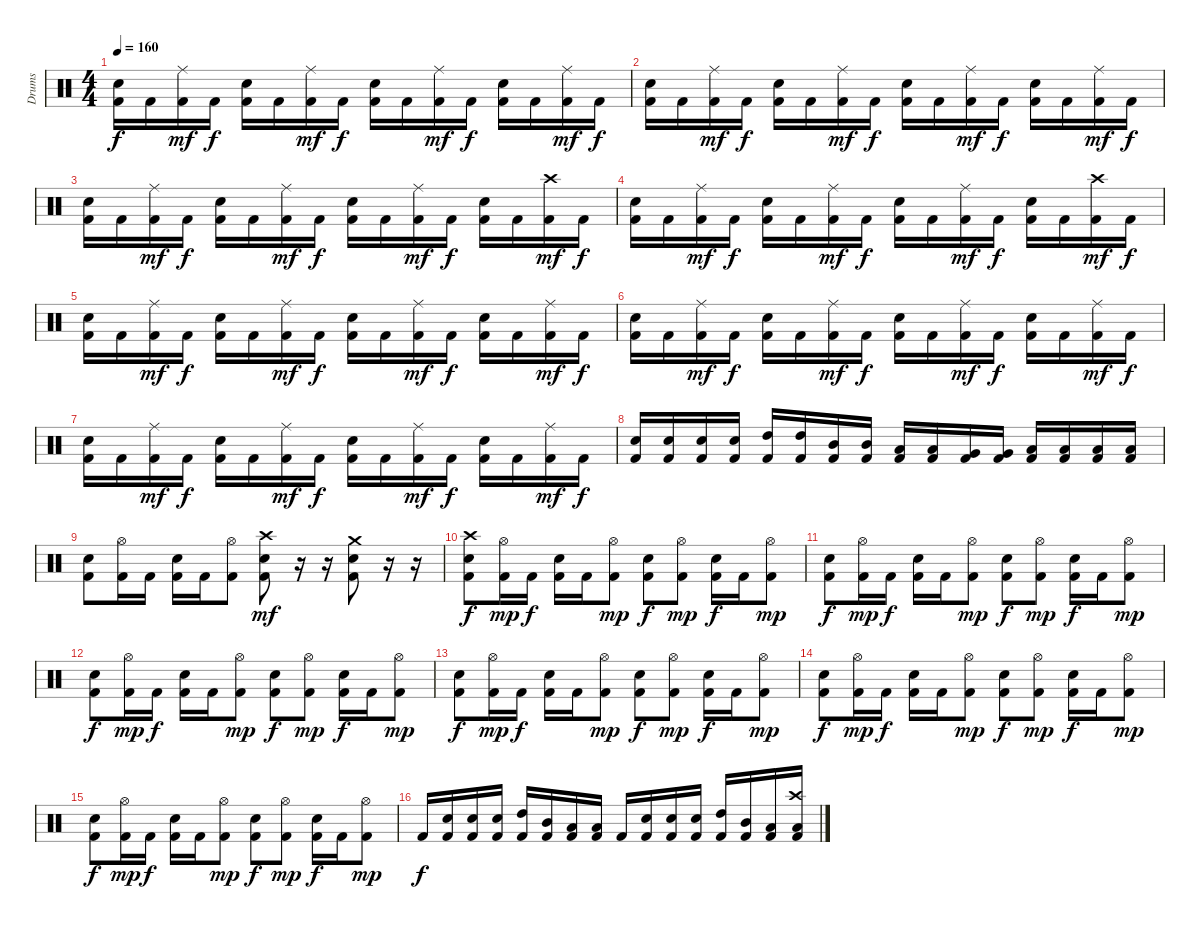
\track ("Drums" "Drums") {instrument percussion}
\staff {score}
\articulation defaults
\ts (4 4)
\tempo 160
\clef neutral
\ks c
("Electric Snare (hit)" "Kick (hit) 2").16{dy f} "Kick (hit) 2".16 ("Ride (middle)" "Kick (hit) 2").16{dy mf} "Kick (hit) 2".16{dy f} ("Electric Snare (hit)" "Kick (hit) 2").16 "Kick (hit) 2".16 ("Ride (middle)" "Kick (hit) 2").16{dy mf} "Kick (hit) 2".16{dy f} ("Electric Snare (hit)" "Kick (hit) 2").16 "Kick (hit) 2".16 ("Ride (middle)" "Kick (hit) 2").16{dy mf} "Kick (hit) 2".16{dy f} ("Electric Snare (hit)" "Kick (hit) 2").16 "Kick (hit) 2".16 ("Ride (middle)" "Kick (hit) 2").16{dy mf} "Kick (hit) 2".16{dy f} |
("Electric Snare (hit)" "Kick (hit) 2").16 "Kick (hit) 2".16 ("Ride (middle)" "Kick (hit) 2").16{dy mf} "Kick (hit) 2".16{dy f} ("Electric Snare (hit)" "Kick (hit) 2").16 "Kick (hit) 2".16 ("Ride (middle)" "Kick (hit) 2").16{dy mf} "Kick (hit) 2".16{dy f} ("Electric Snare (hit)" "Kick (hit) 2").16 "Kick (hit) 2".16 ("Ride (middle)" "Kick (hit) 2").16{dy mf} "Kick (hit) 2".16{dy f} ("Electric Snare (hit)" "Kick (hit) 2").16 "Kick (hit) 2".16 ("Ride (middle)" "Kick (hit) 2").16{dy mf} "Kick (hit) 2".16{dy f} |
("Electric Snare (hit)" "Kick (hit) 2").16 "Kick (hit) 2".16 ("Ride (middle)" "Kick (hit) 2").16{dy mf} "Kick (hit) 2".16{dy f} ("Electric Snare (hit)" "Kick (hit) 2").16 "Kick (hit) 2".16 ("Ride (middle)" "Kick (hit) 2").16{dy mf} "Kick (hit) 2".16{dy f} ("Electric Snare (hit)" "Kick (hit) 2").16 "Kick (hit) 2".16 ("Ride (middle)" "Kick (hit) 2").16{dy mf} "Kick (hit) 2".16{dy f} ("Electric Snare (hit)" "Kick (hit) 2").16 "Kick (hit) 2".16 ("Crash high (hit)" "Kick (hit) 2").16{dy mf} "Kick (hit) 2".16{dy f} |
("Electric Snare (hit)" "Kick (hit) 2").16 "Kick (hit) 2".16 ("Ride (middle)" "Kick (hit) 2").16{dy mf} "Kick (hit) 2".16{dy f} ("Electric Snare (hit)" "Kick (hit) 2").16 "Kick (hit) 2".16 ("Ride (middle)" "Kick (hit) 2").16{dy mf} "Kick (hit) 2".16{dy f} ("Electric Snare (hit)" "Kick (hit) 2").16 "Kick (hit) 2".16 ("Ride (middle)" "Kick (hit) 2").16{dy mf} "Kick (hit) 2".16{dy f} ("Electric Snare (hit)" "Kick (hit) 2").16 "Kick (hit) 2".16 ("Crash high (hit)" "Kick (hit) 2").16{dy mf} "Kick (hit) 2".16{dy f} |
("Electric Snare (hit)" "Kick (hit) 2").16 "Kick (hit) 2".16 ("Ride (middle)" "Kick (hit) 2").16{dy mf} "Kick (hit) 2".16{dy f} ("Electric Snare (hit)" "Kick (hit) 2").16 "Kick (hit) 2".16 ("Ride (middle)" "Kick (hit) 2").16{dy mf} "Kick (hit) 2".16{dy f} ("Electric Snare (hit)" "Kick (hit) 2").16 "Kick (hit) 2".16 ("Ride (middle)" "Kick (hit) 2").16{dy mf} "Kick (hit) 2".16{dy f} ("Electric Snare (hit)" "Kick (hit) 2").16 "Kick (hit) 2".16 ("Ride (middle)" "Kick (hit) 2").16{dy mf} "Kick (hit) 2".16{dy f} |
("Electric Snare (hit)" "Kick (hit) 2").16 "Kick (hit) 2".16 ("Ride (middle)" "Kick (hit) 2").16{dy mf} "Kick (hit) 2".16{dy f} ("Electric Snare (hit)" "Kick (hit) 2").16 "Kick (hit) 2".16 ("Ride (middle)" "Kick (hit) 2").16{dy mf} "Kick (hit) 2".16{dy f} ("Electric Snare (hit)" "Kick (hit) 2").16 "Kick (hit) 2".16 ("Ride (middle)" "Kick (hit) 2").16{dy mf} "Kick (hit) 2".16{dy f} ("Electric Snare (hit)" "Kick (hit) 2").16 "Kick (hit) 2".16 ("Ride (middle)" "Kick (hit) 2").16{dy mf} "Kick (hit) 2".16{dy f} |
("Electric Snare (hit)" "Kick (hit) 2").16 "Kick (hit) 2".16 ("Ride (middle)" "Kick (hit) 2").16{dy mf} "Kick (hit) 2".16{dy f} ("Electric Snare (hit)" "Kick (hit) 2").16 "Kick (hit) 2".16 ("Ride (middle)" "Kick (hit) 2").16{dy mf} "Kick (hit) 2".16{dy f} ("Electric Snare (hit)" "Kick (hit) 2").16 "Kick (hit) 2".16 ("Ride (middle)" "Kick (hit) 2").16{dy mf} "Kick (hit) 2".16{dy f} ("Electric Snare (hit)" "Kick (hit) 2").16 "Kick (hit) 2".16 ("Ride (middle)" "Kick (hit) 2").16{dy mf} "Kick (hit) 2".16{dy f} |
("Electric Snare (hit)" "Kick (hit) 2").16 ("Electric Snare (hit)" "Kick (hit) 2").16 ("Electric Snare (hit)" "Kick (hit) 2").16 ("Electric Snare (hit)" "Kick (hit) 2").16 ("High Tom (hit)" "Kick (hit) 2").16 ("High Tom (hit)" "Kick (hit) 2").16 ("Mid Tom (hit)" "Kick (hit) 2").16 ("Mid Tom (hit)" "Kick (hit) 2").16 ("Low Tom (hit)" "Kick (hit) 2").16 ("Low Tom (hit)" "Kick (hit) 2").16 ("Very Low Tom (hit)" "Kick (hit) 2").16 ("Very Low Tom (hit)" "Kick (hit) 2").16 ("Low Floor Tom (hit)" "Kick (hit) 2").16 ("Low Floor Tom (hit)" "Kick (hit) 2").16 ("Low Floor Tom (hit)" "Kick (hit) 2").16 ("Low Floor Tom (hit)" "Kick (hit) 2").16 |
("Electric Snare (hit)" "Kick (hit) 2").8 ("Hi-Hat (open)" "Kick (hit) 2").16 "Kick (hit) 2".16 ("Electric Snare (hit)" "Kick (hit) 2").16 "Kick (hit) 2".16 ("Hi-Hat (open)" "Kick (hit) 2").8 ("Crash high (hit)" "Electric Snare (hit)" "Kick (hit) 2").8{dy mf} r.16 r.16 ("Crash medium (hit)" "Electric Snare (hit)" "Kick (hit) 2").8 r.16 r.16 |
("Crash high (hit)" "Electric Snare (hit)" "Kick (hit) 2").8{dy f} ("Hi-Hat (open)" "Kick (hit) 2").16{dy mp} "Kick (hit) 2".16{dy f} ("Electric Snare (hit)" "Kick (hit) 2").16 "Kick (hit) 2".16 ("Hi-Hat (open)" "Kick (hit) 2").8{dy mp} ("Electric Snare (hit)" "Kick (hit) 2").8{dy f} ("Hi-Hat (open)" "Kick (hit) 2").8{dy mp} ("Electric Snare (hit)" "Kick (hit) 2").16{dy f} "Kick (hit) 2".16 ("Hi-Hat (open)" "Kick (hit) 2").8{dy mp} |
("Electric Snare (hit)" "Kick (hit) 2").8{dy f} ("Hi-Hat (open)" "Kick (hit) 2").16{dy mp} "Kick (hit) 2".16{dy f} ("Electric Snare (hit)" "Kick (hit) 2").16 "Kick (hit) 2".16 ("Hi-Hat (open)" "Kick (hit) 2").8{dy mp} ("Electric Snare (hit)" "Kick (hit) 2").8{dy f} ("Hi-Hat (open)" "Kick (hit) 2").8{dy mp} ("Electric Snare (hit)" "Kick (hit) 2").16{dy f} "Kick (hit) 2".16 ("Hi-Hat (open)" "Kick (hit) 2").8{dy mp} |
("Electric Snare (hit)" "Kick (hit) 2").8{dy f} ("Hi-Hat (open)" "Kick (hit) 2").16{dy mp} "Kick (hit) 2".16{dy f} ("Electric Snare (hit)" "Kick (hit) 2").16 "Kick (hit) 2".16 ("Hi-Hat (open)" "Kick (hit) 2").8{dy mp} ("Electric Snare (hit)" "Kick (hit) 2").8{dy f} ("Hi-Hat (open)" "Kick (hit) 2").8{dy mp} ("Electric Snare (hit)" "Kick (hit) 2").16{dy f} "Kick (hit) 2".16 ("Hi-Hat (open)" "Kick (hit) 2").8{dy mp} |
("Electric Snare (hit)" "Kick (hit) 2").8{dy f} ("Hi-Hat (open)" "Kick (hit) 2").16{dy mp} "Kick (hit) 2".16{dy f} ("Electric Snare (hit)" "Kick (hit) 2").16 "Kick (hit) 2".16 ("Hi-Hat (open)" "Kick (hit) 2").8{dy mp} ("Electric Snare (hit)" "Kick (hit) 2").8{dy f} ("Hi-Hat (open)" "Kick (hit) 2").8{dy mp} ("Electric Snare (hit)" "Kick (hit) 2").16{dy f} "Kick (hit) 2".16 ("Hi-Hat (open)" "Kick (hit) 2").8{dy mp} |
("Electric Snare (hit)" "Kick (hit) 2").8{dy f} ("Hi-Hat (open)" "Kick (hit) 2").16{dy mp} "Kick (hit) 2".16{dy f} ("Electric Snare (hit)" "Kick (hit) 2").16 "Kick (hit) 2".16 ("Hi-Hat (open)" "Kick (hit) 2").8{dy mp} ("Electric Snare (hit)" "Kick (hit) 2").8{dy f} ("Hi-Hat (open)" "Kick (hit) 2").8{dy mp} ("Electric Snare (hit)" "Kick (hit) 2").16{dy f} "Kick (hit) 2".16 ("Hi-Hat (open)" "Kick (hit) 2").8{dy mp} |
("Electric Snare (hit)" "Kick (hit) 2").8{dy f} ("Hi-Hat (open)" "Kick (hit) 2").16{dy mp} "Kick (hit) 2".16{dy f} ("Electric Snare (hit)" "Kick (hit) 2").16 "Kick (hit) 2".16 ("Hi-Hat (open)" "Kick (hit) 2").8{dy mp} ("Electric Snare (hit)" "Kick (hit) 2").8{dy f} ("Hi-Hat (open)" "Kick (hit) 2").8{dy mp} ("Electric Snare (hit)" "Kick (hit) 2").16{dy f} "Kick (hit) 2".16 ("Hi-Hat (open)" "Kick (hit) 2").8{dy mp} |
"Kick (hit) 2".16{dy f} ("Electric Snare (hit)" "Kick (hit) 2").16 ("Electric Snare (hit)" "Kick (hit) 2").16 ("Electric Snare (hit)" "Kick (hit) 2").16 ("High Tom (hit)" "Kick (hit) 2").16 ("Mid Tom (hit)" "Kick (hit) 2").16 ("Low Tom (hit)" "Kick (hit) 2").16 ("Low Floor Tom (hit)" "Kick (hit) 2").16 "Kick (hit) 2".16 ("Electric Snare (hit)" "Kick (hit) 2").16 ("Electric Snare (hit)" "Kick (hit) 2").16 ("Electric Snare (hit)" "Kick (hit) 2").16 ("High Tom (hit)" "Kick (hit) 2").16 ("Mid Tom (hit)" "Kick (hit) 2").16 ("Low Tom (hit)" "Kick (hit) 2").16 ("Crash high (hit)" "Low Floor Tom (hit)" "Kick (hit) 2").16
